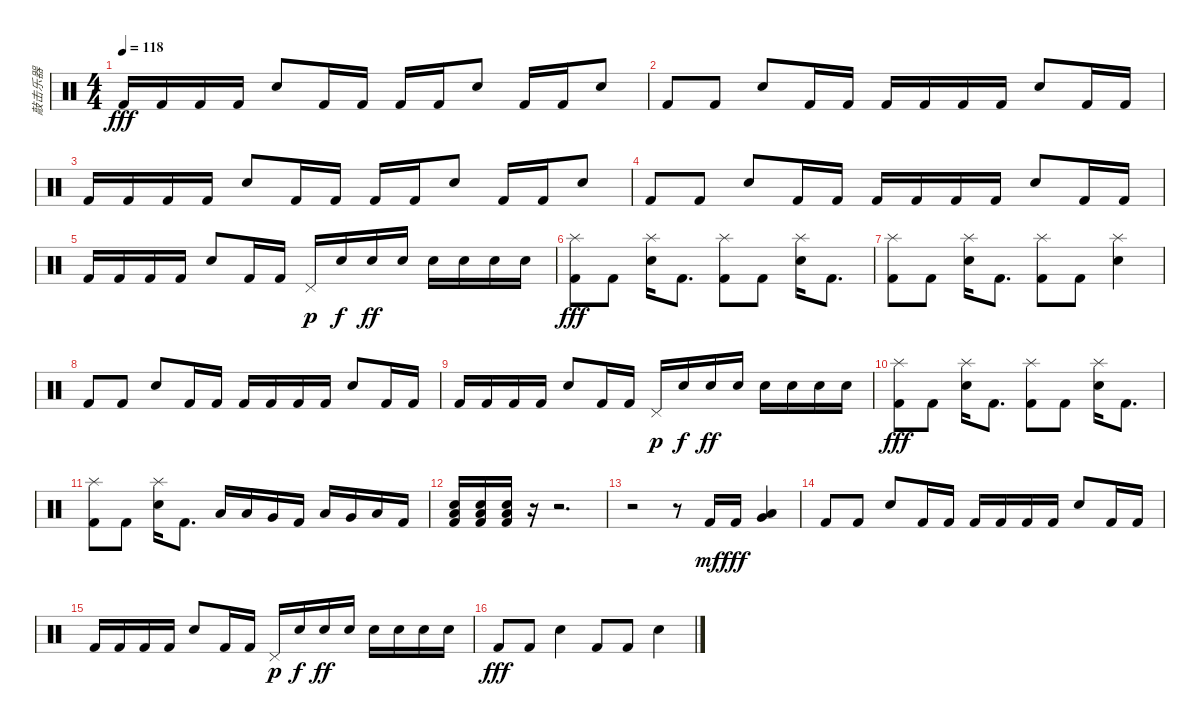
\track ("敲击乐器" "敲击乐器") {instrument percussion}
\staff {score}
\articulation defaults
\ts (4 4)
\tempo 118
\clef neutral
\ks c "Kick (hit) 2".16{dy fff} "Kick (hit) 2".16 "Kick (hit) 2".16 "Kick (hit) 2".16 "Snare (hit) 2".8 "Kick (hit) 2".16 "Kick (hit) 2".16 "Kick (hit) 2".16 "Kick (hit) 2".16 "Snare (hit) 2".8 "Kick (hit) 2".16 "Kick (hit) 2".16 "Snare (hit) 2".8
|
"Kick (hit) 2".8 "Kick (hit) 2".8 "Snare (hit) 2".8 "Kick (hit) 2".16 "Kick (hit) 2".16 "Kick (hit) 2".16 "Kick (hit) 2".16 "Kick (hit) 2".16 "Kick (hit) 2".16 "Snare (hit) 2".8 "Kick (hit) 2".16 "Kick (hit) 2".16 |
"Kick (hit) 2".16 "Kick (hit) 2".16 "Kick (hit) 2".16 "Kick (hit) 2".16 "Snare (hit) 2".8 "Kick (hit) 2".16 "Kick (hit) 2".16 "Kick (hit) 2".16 "Kick (hit) 2".16 "Snare (hit) 2".8 "Kick (hit) 2".16 "Kick (hit) 2".16 "Snare (hit) 2".8 |
"Kick (hit) 2".8 "Kick (hit) 2".8 "Snare (hit) 2".8 "Kick (hit) 2".16 "Kick (hit) 2".16 "Kick (hit) 2".16 "Kick (hit) 2".16 "Kick (hit) 2".16 "Kick (hit) 2".16 "Snare (hit) 2".8 "Kick (hit) 2".16 "Kick (hit) 2".16 |
"Kick (hit) 2".16 "Kick (hit) 2".16 "Kick (hit) 2".16 "Kick (hit) 2".16 "Snare (hit) 2".8 "Kick (hit) 2".16 "Kick (hit) 2".16 "Pedal Hi-Hat (hit)".16{dy p} "Snare (hit) 2".16{dy f} "Snare (hit) 2".16{dy ff} "Snare (hit) 2".16 "Snare (hit) 2".16 "Snare (hit) 2".16 "Snare (hit) 2".16 "Snare (hit) 2".16 |
("Splash (hit)" "Kick (hit) 2").8{dy fff} "Kick (hit) 2".8 ("Splash (hit)" "Snare (hit) 2").16 "Kick (hit) 2".8{d} ("Splash (hit)" "Kick (hit) 2").8 "Kick (hit) 2".8 ("Splash (hit)" "Snare (hit) 2").16 "Kick (hit) 2".8{d} |
("Splash (hit)" "Kick (hit) 2").8 "Kick (hit) 2".8 ("Splash (hit)" "Snare (hit) 2").16 "Kick (hit) 2".8{d} ("Splash (hit)" "Kick (hit) 2").8 "Kick (hit) 2".8 ("Splash (hit)" "Snare (hit) 2").4 |
"Kick (hit) 2".8 "Kick (hit) 2".8 "Snare (hit) 2".8 "Kick (hit) 2".16 "Kick (hit) 2".16 "Kick (hit) 2".16 "Kick (hit) 2".16 "Kick (hit) 2".16 "Kick (hit) 2".16 "Snare (hit) 2".8 "Kick (hit) 2".16 "Kick (hit) 2".16 |
"Kick (hit) 2".16 "Kick (hit) 2".16 "Kick (hit) 2".16 "Kick (hit) 2".16 "Snare (hit) 2".8 "Kick (hit) 2".16 "Kick (hit) 2".16 "Pedal Hi-Hat (hit)".16{dy p} "Snare (hit) 2".16{dy f} "Snare (hit) 2".16{dy ff} "Snare (hit) 2".16 "Snare (hit) 2".16 "Snare (hit) 2".16 "Snare (hit) 2".16 "Snare (hit) 2".16 |
("Splash (hit)" "Kick (hit) 2").8{dy fff} "Kick (hit) 2".8 ("Splash (hit)" "Snare (hit) 2").16 "Kick (hit) 2".8{d} ("Splash (hit)" "Kick (hit) 2").8 "Kick (hit) 2".8 ("Splash (hit)" "Snare (hit) 2").16 "Kick (hit) 2".8{d} |
("Splash (hit)" "Kick (hit) 2").8 "Kick (hit) 2".8 ("Splash (hit)" "Snare (hit) 2").16 "Kick (hit) 2".8{d} "Low Tom (hit)".16 "Low Floor Tom (hit)".16 "Very Low Tom (hit)".16 "Kick (hit) 2".16 "Low Tom (hit)".16 "Very Low Tom (hit)".16 "Low Floor Tom (hit)".16 "Kick (hit) 2".16 |
("Snare (hit) 2" "Low Floor Tom (hit)" "Kick (hit) 2").16 ("Snare (hit) 2" "Low Floor Tom (hit)" "Kick (hit) 2").16 ("Snare (hit) 2" "Low Floor Tom (hit)" "Kick (hit) 2").16 r.16 r.2{d} |
r.2 r.8 "Kick (hit) 2".16{dy mf} "Kick (hit) 2".16{dy fff} ("Low Floor Tom (hit)" "Very Low Tom (hit)").4 |
"Kick (hit) 2".8 "Kick (hit) 2".8 "Snare (hit) 2".8 "Kick (hit) 2".16 "Kick (hit) 2".16 "Kick (hit) 2".16 "Kick (hit) 2".16 "Kick (hit) 2".16 "Kick (hit) 2".16 "Snare (hit) 2".8 "Kick (hit) 2".16 "Kick (hit) 2".16 |
"Kick (hit) 2".16 "Kick (hit) 2".16 "Kick (hit) 2".16 "Kick (hit) 2".16 "Snare (hit) 2".8 "Kick (hit) 2".16 "Kick (hit) 2".16 "Pedal Hi-Hat (hit)".16{dy p} "Snare (hit) 2".16{dy f} "Snare (hit) 2".16{dy ff} "Snare (hit) 2".16 "Snare (hit) 2".16 "Snare (hit) 2".16 "Snare (hit) 2".16 "Snare (hit) 2".16 |
"Kick (hit) 2".8{dy fff} "Kick (hit) 2".8 "Snare (hit) 2".4 "Kick (hit) 2".8 "Kick (hit) 2".8 "Snare (hit) 2".4
